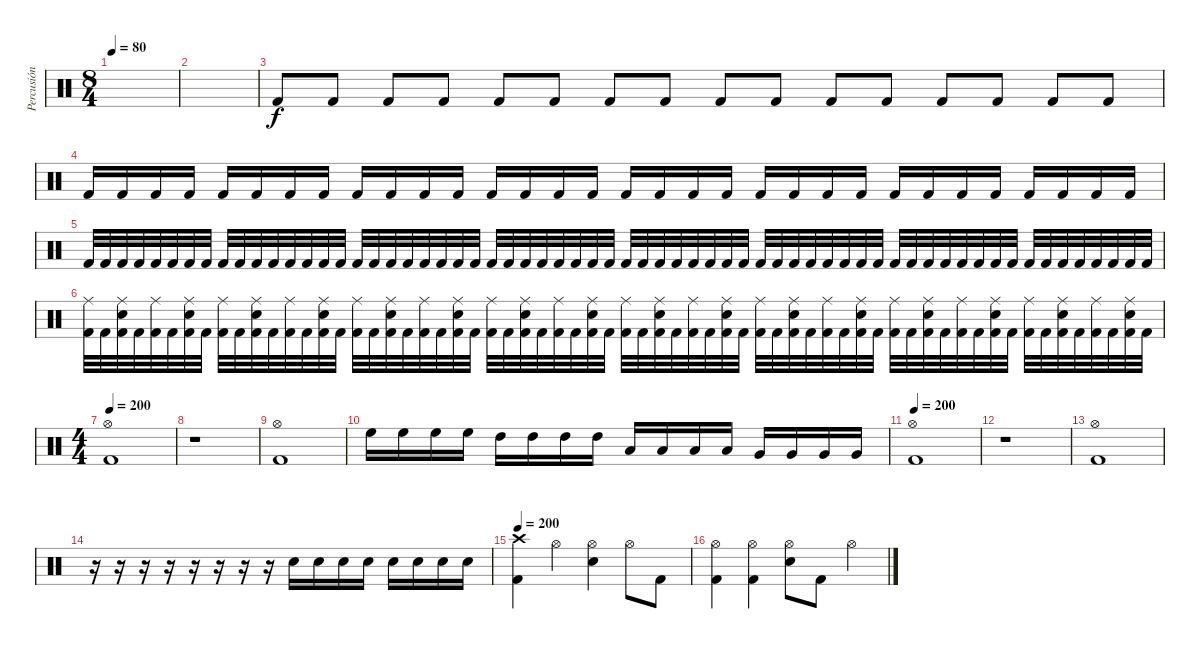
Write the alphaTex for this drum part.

\track ("Percusión" "Percusión") {instrument percussion}
\staff {score}
\articulation defaults
\ts (8 4)
\tempo 80
\tempo 70
\tempo 80
\clef neutral
\ks c
|
|
"Kick (hit) 2".8 "Kick (hit) 2".8 "Kick (hit) 2".8 "Kick (hit) 2".8 "Kick (hit) 2".8 "Kick (hit) 2".8 "Kick (hit) 2".8 "Kick (hit) 2".8 "Kick (hit) 2".8 "Kick (hit) 2".8 "Kick (hit) 2".8 "Kick (hit) 2".8 "Kick (hit) 2".8 "Kick (hit) 2".8 "Kick (hit) 2".8 "Kick (hit) 2".8 |
"Kick (hit) 2".16 "Kick (hit) 2".16 "Kick (hit) 2".16 "Kick (hit) 2".16 "Kick (hit) 2".16 "Kick (hit) 2".16 "Kick (hit) 2".16 "Kick (hit) 2".16 "Kick (hit) 2".16 "Kick (hit) 2".16 "Kick (hit) 2".16 "Kick (hit) 2".16 "Kick (hit) 2".16 "Kick (hit) 2".16 "Kick (hit) 2".16 "Kick (hit) 2".16 "Kick (hit) 2".16 "Kick (hit) 2".16 "Kick (hit) 2".16 "Kick (hit) 2".16 "Kick (hit) 2".16 "Kick (hit) 2".16 "Kick (hit) 2".16 "Kick (hit) 2".16 "Kick (hit) 2".16 "Kick (hit) 2".16 "Kick (hit) 2".16 "Kick (hit) 2".16 "Kick (hit) 2".16 "Kick (hit) 2".16 "Kick (hit) 2".16 "Kick (hit) 2".16 |
"Kick (hit) 2".32 "Kick (hit) 2".32 "Kick (hit) 2".32 "Kick (hit) 2".32 "Kick (hit) 2".32 "Kick (hit) 2".32 "Kick (hit) 2".32 "Kick (hit) 2".32 "Kick (hit) 2".32 "Kick (hit) 2".32 "Kick (hit) 2".32 "Kick (hit) 2".32 "Kick (hit) 2".32 "Kick (hit) 2".32 "Kick (hit) 2".32 "Kick (hit) 2".32 "Kick (hit) 2".32 "Kick (hit) 2".32 "Kick (hit) 2".32 "Kick (hit) 2".32 "Kick (hit) 2".32 "Kick (hit) 2".32 "Kick (hit) 2".32 "Kick (hit) 2".32 "Kick (hit) 2".32 "Kick (hit) 2".32 "Kick (hit) 2".32 "Kick (hit) 2".32 "Kick (hit) 2".32 "Kick (hit) 2".32 "Kick (hit) 2".32 "Kick (hit) 2".32 "Kick (hit) 2".32 "Kick (hit) 2".32 "Kick (hit) 2".32 "Kick (hit) 2".32 "Kick (hit) 2".32 "Kick (hit) 2".32 "Kick (hit) 2".32 "Kick (hit) 2".32 "Kick (hit) 2".32 "Kick (hit) 2".32 "Kick (hit) 2".32 "Kick (hit) 2".32 "Kick (hit) 2".32 "Kick (hit) 2".32 "Kick (hit) 2".32 "Kick (hit) 2".32 "Kick (hit) 2".32 "Kick (hit) 2".32 "Kick (hit) 2".32 "Kick (hit) 2".32 "Kick (hit) 2".32 "Kick (hit) 2".32 "Kick (hit) 2".32 "Kick (hit) 2".32 "Kick (hit) 2".32 "Kick (hit) 2".32 "Kick (hit) 2".32 "Kick (hit) 2".32 "Kick (hit) 2".32 "Kick (hit) 2".32 "Kick (hit) 2".32 "Kick (hit) 2".32 |
("Ride (middle)" "Kick (hit) 2").32 "Kick (hit) 2".32 ("Snare (hit) 2" "Ride (middle)" "Kick (hit) 2").32 "Kick (hit) 2".32 ("Ride (middle)" "Kick (hit) 2").32 "Kick (hit) 2".32 ("Snare (hit) 2" "Ride (middle)" "Kick (hit) 2").32 "Kick (hit) 2".32 ("Ride (middle)" "Kick (hit) 2").32 "Kick (hit) 2".32 ("Snare (hit) 2" "Ride (middle)" "Kick (hit) 2").32 "Kick (hit) 2".32 ("Ride (middle)" "Kick (hit) 2").32 "Kick (hit) 2".32 ("Snare (hit) 2" "Ride (middle)" "Kick (hit) 2").32 "Kick (hit) 2".32 ("Ride (middle)" "Kick (hit) 2").32 "Kick (hit) 2".32 ("Snare (hit) 2" "Ride (middle)" "Kick (hit) 2").32 "Kick (hit) 2".32 ("Ride (middle)" "Kick (hit) 2").32 "Kick (hit) 2".32 ("Snare (hit) 2" "Ride (middle)" "Kick (hit) 2").32 "Kick (hit) 2".32 ("Ride (middle)" "Kick (hit) 2").32 "Kick (hit) 2".32 ("Snare (hit) 2" "Ride (middle)" "Kick (hit) 2").32 "Kick (hit) 2".32 ("Ride (middle)" "Kick (hit) 2").32 "Kick (hit) 2".32 ("Snare (hit) 2" "Ride (middle)" "Kick (hit) 2").32 "Kick (hit) 2".32 ("Ride (middle)" "Kick (hit) 2").32 "Kick (hit) 2".32 ("Snare (hit) 2" "Ride (middle)" "Kick (hit) 2").32 "Kick (hit) 2".32 ("Ride (middle)" "Kick (hit) 2").32 "Kick (hit) 2".32 ("Snare (hit) 2" "Ride (middle)" "Kick (hit) 2").32 "Kick (hit) 2".32 ("Ride (middle)" "Kick (hit) 2").32 "Kick (hit) 2".32 ("Snare (hit) 2" "Ride (middle)" "Kick (hit) 2").32 "Kick (hit) 2".32 ("Ride (middle)" "Kick (hit) 2").32 "Kick (hit) 2".32 ("Snare (hit) 2" "Ride (middle)" "Kick (hit) 2").32 "Kick (hit) 2".32 ("Ride (middle)" "Kick (hit) 2").32 "Kick (hit) 2".32 ("Snare (hit) 2" "Ride (middle)" "Kick (hit) 2").32 "Kick (hit) 2".32 ("Ride (middle)" "Kick (hit) 2").32 "Kick (hit) 2".32 ("Snare (hit) 2" "Ride (middle)" "Kick (hit) 2").32 "Kick (hit) 2".32 ("Ride (middle)" "Kick (hit) 2").32 "Kick (hit) 2".32 ("Snare (hit) 2" "Ride (middle)" "Kick (hit) 2").32 "Kick (hit) 2".32 ("Ride (middle)" "Kick (hit) 2").32 "Kick (hit) 2".32 ("Snare (hit) 2" "Ride (middle)" "Kick (hit) 2").32 "Kick (hit) 2".32 |
\ts (4 4)
\tempo 200
("Hi-Hat (open)" "Kick (hit) 2").1 |
r.1 |
("Kick (hit) 2" "Hi-Hat (open)").1 |
"High Floor Tom (hit)".16 "High Floor Tom (hit)".16 "High Floor Tom (hit)".16 "High Floor Tom (hit)".16 "High Tom (hit)".16 "High Tom (hit)".16 "High Tom (hit)".16 "High Tom (hit)".16 "Low Tom (hit)".16 "Low Tom (hit)".16 "Low Tom (hit)".16 "Low Tom (hit)".16 "Very Low Tom (hit)".16 "Very Low Tom (hit)".16 "Very Low Tom (hit)".16 "Very Low Tom (hit)".16 |
\tempo 200
("Hi-Hat (open)" "Kick (hit) 2").1 |
r.1 |
("Kick (hit) 2" "Hi-Hat (open)").1 |
r.16 r.16 r.16 r.16 r.16 r.16 r.16 r.16 "Snare (hit) 2".16 "Snare (hit) 2".16 "Snare (hit) 2".16 "Snare (hit) 2".16 "Snare (hit) 2".16 "Snare (hit) 2".16 "Snare (hit) 2".16 "Snare (hit) 2".16 |
\tempo 200
("Kick (hit) 2" "Crash high (hit)").4 "Hi-Hat (open)".4 ("Snare (hit) 2" "Hi-Hat (open)").4 "Hi-Hat (open)".8 "Kick (hit) 2".8 |
("Kick (hit) 2" "Hi-Hat (open)").4 ("Kick (hit) 2" "Hi-Hat (open)").4 ("Snare (hit) 2" "Hi-Hat (open)").8 "Kick (hit) 2".8 "Hi-Hat (open)".4
